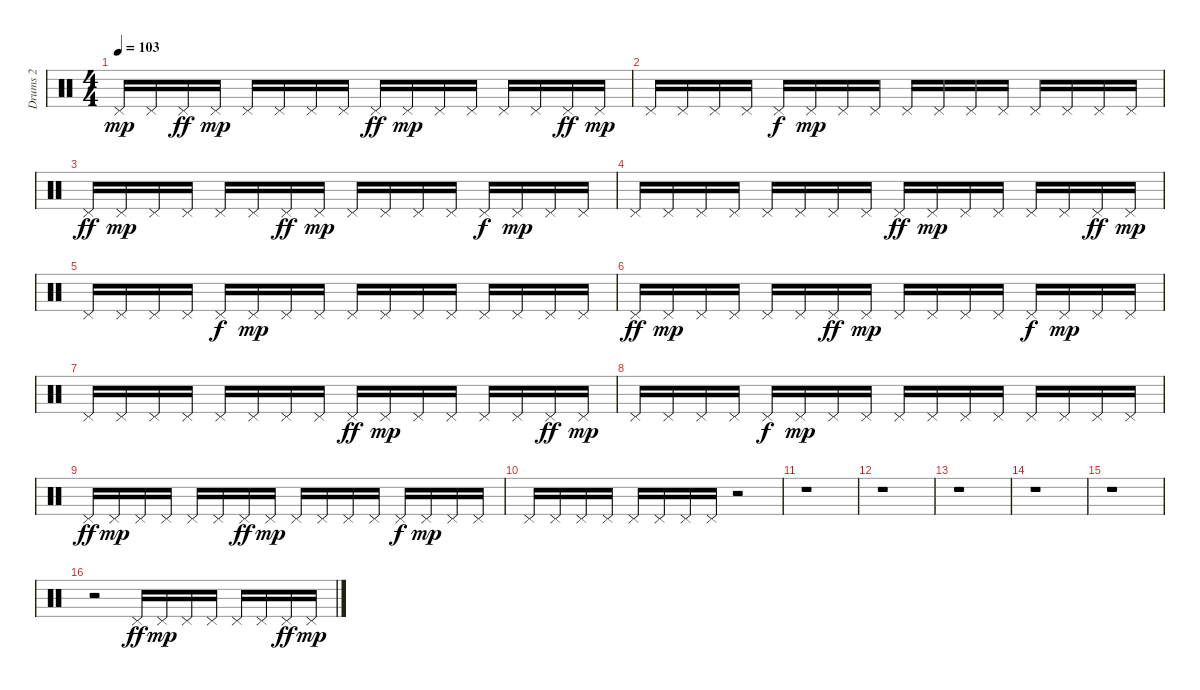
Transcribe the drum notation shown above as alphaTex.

\track ("Drums 2" "Drums 2") {instrument percussion}
\staff {score}
\articulation defaults
\ts (4 4)
\tempo 103
\clef neutral
\ks c "Pedal Hi-Hat (hit)".16{dy mp} "Pedal Hi-Hat (hit)".16 "Pedal Hi-Hat (hit)".16{dy ff} "Pedal Hi-Hat (hit)".16{dy mp} "Pedal Hi-Hat (hit)".16 "Pedal Hi-Hat (hit)".16 "Pedal Hi-Hat (hit)".16 "Pedal Hi-Hat (hit)".16 "Pedal Hi-Hat (hit)".16{dy ff} "Pedal Hi-Hat (hit)".16{dy mp} "Pedal Hi-Hat (hit)".16 "Pedal Hi-Hat (hit)".16 "Pedal Hi-Hat (hit)".16 "Pedal Hi-Hat (hit)".16 "Pedal Hi-Hat (hit)".16{dy ff} "Pedal Hi-Hat (hit)".16{dy mp}
|
"Pedal Hi-Hat (hit)".16 "Pedal Hi-Hat (hit)".16 "Pedal Hi-Hat (hit)".16 "Pedal Hi-Hat (hit)".16 "Pedal Hi-Hat (hit)".16{dy f} "Pedal Hi-Hat (hit)".16{dy mp} "Pedal Hi-Hat (hit)".16 "Pedal Hi-Hat (hit)".16 "Pedal Hi-Hat (hit)".16 "Pedal Hi-Hat (hit)".16 "Pedal Hi-Hat (hit)".16 "Pedal Hi-Hat (hit)".16 "Pedal Hi-Hat (hit)".16 "Pedal Hi-Hat (hit)".16 "Pedal Hi-Hat (hit)".16 "Pedal Hi-Hat (hit)".16 |
"Pedal Hi-Hat (hit)".16{dy ff} "Pedal Hi-Hat (hit)".16{dy mp} "Pedal Hi-Hat (hit)".16 "Pedal Hi-Hat (hit)".16 "Pedal Hi-Hat (hit)".16 "Pedal Hi-Hat (hit)".16 "Pedal Hi-Hat (hit)".16{dy ff} "Pedal Hi-Hat (hit)".16{dy mp} "Pedal Hi-Hat (hit)".16 "Pedal Hi-Hat (hit)".16 "Pedal Hi-Hat (hit)".16 "Pedal Hi-Hat (hit)".16 "Pedal Hi-Hat (hit)".16{dy f} "Pedal Hi-Hat (hit)".16{dy mp} "Pedal Hi-Hat (hit)".16 "Pedal Hi-Hat (hit)".16 |
"Pedal Hi-Hat (hit)".16 "Pedal Hi-Hat (hit)".16 "Pedal Hi-Hat (hit)".16 "Pedal Hi-Hat (hit)".16 "Pedal Hi-Hat (hit)".16 "Pedal Hi-Hat (hit)".16 "Pedal Hi-Hat (hit)".16 "Pedal Hi-Hat (hit)".16 "Pedal Hi-Hat (hit)".16{dy ff} "Pedal Hi-Hat (hit)".16{dy mp} "Pedal Hi-Hat (hit)".16 "Pedal Hi-Hat (hit)".16 "Pedal Hi-Hat (hit)".16 "Pedal Hi-Hat (hit)".16 "Pedal Hi-Hat (hit)".16{dy ff} "Pedal Hi-Hat (hit)".16{dy mp} |
"Pedal Hi-Hat (hit)".16 "Pedal Hi-Hat (hit)".16 "Pedal Hi-Hat (hit)".16 "Pedal Hi-Hat (hit)".16 "Pedal Hi-Hat (hit)".16{dy f} "Pedal Hi-Hat (hit)".16{dy mp} "Pedal Hi-Hat (hit)".16 "Pedal Hi-Hat (hit)".16 "Pedal Hi-Hat (hit)".16 "Pedal Hi-Hat (hit)".16 "Pedal Hi-Hat (hit)".16 "Pedal Hi-Hat (hit)".16 "Pedal Hi-Hat (hit)".16 "Pedal Hi-Hat (hit)".16 "Pedal Hi-Hat (hit)".16 "Pedal Hi-Hat (hit)".16 |
"Pedal Hi-Hat (hit)".16{dy ff} "Pedal Hi-Hat (hit)".16{dy mp} "Pedal Hi-Hat (hit)".16 "Pedal Hi-Hat (hit)".16 "Pedal Hi-Hat (hit)".16 "Pedal Hi-Hat (hit)".16 "Pedal Hi-Hat (hit)".16{dy ff} "Pedal Hi-Hat (hit)".16{dy mp} "Pedal Hi-Hat (hit)".16 "Pedal Hi-Hat (hit)".16 "Pedal Hi-Hat (hit)".16 "Pedal Hi-Hat (hit)".16 "Pedal Hi-Hat (hit)".16{dy f} "Pedal Hi-Hat (hit)".16{dy mp} "Pedal Hi-Hat (hit)".16 "Pedal Hi-Hat (hit)".16 |
"Pedal Hi-Hat (hit)".16 "Pedal Hi-Hat (hit)".16 "Pedal Hi-Hat (hit)".16 "Pedal Hi-Hat (hit)".16 "Pedal Hi-Hat (hit)".16 "Pedal Hi-Hat (hit)".16 "Pedal Hi-Hat (hit)".16 "Pedal Hi-Hat (hit)".16 "Pedal Hi-Hat (hit)".16{dy ff} "Pedal Hi-Hat (hit)".16{dy mp} "Pedal Hi-Hat (hit)".16 "Pedal Hi-Hat (hit)".16 "Pedal Hi-Hat (hit)".16 "Pedal Hi-Hat (hit)".16 "Pedal Hi-Hat (hit)".16{dy ff} "Pedal Hi-Hat (hit)".16{dy mp} |
"Pedal Hi-Hat (hit)".16 "Pedal Hi-Hat (hit)".16 "Pedal Hi-Hat (hit)".16 "Pedal Hi-Hat (hit)".16 "Pedal Hi-Hat (hit)".16{dy f} "Pedal Hi-Hat (hit)".16{dy mp} "Pedal Hi-Hat (hit)".16 "Pedal Hi-Hat (hit)".16 "Pedal Hi-Hat (hit)".16 "Pedal Hi-Hat (hit)".16 "Pedal Hi-Hat (hit)".16 "Pedal Hi-Hat (hit)".16 "Pedal Hi-Hat (hit)".16 "Pedal Hi-Hat (hit)".16 "Pedal Hi-Hat (hit)".16 "Pedal Hi-Hat (hit)".16 |
"Pedal Hi-Hat (hit)".16{dy ff} "Pedal Hi-Hat (hit)".16{dy mp} "Pedal Hi-Hat (hit)".16 "Pedal Hi-Hat (hit)".16 "Pedal Hi-Hat (hit)".16 "Pedal Hi-Hat (hit)".16 "Pedal Hi-Hat (hit)".16{dy ff} "Pedal Hi-Hat (hit)".16{dy mp} "Pedal Hi-Hat (hit)".16 "Pedal Hi-Hat (hit)".16 "Pedal Hi-Hat (hit)".16 "Pedal Hi-Hat (hit)".16 "Pedal Hi-Hat (hit)".16{dy f} "Pedal Hi-Hat (hit)".16{dy mp} "Pedal Hi-Hat (hit)".16 "Pedal Hi-Hat (hit)".16 |
"Pedal Hi-Hat (hit)".16 "Pedal Hi-Hat (hit)".16 "Pedal Hi-Hat (hit)".16 "Pedal Hi-Hat (hit)".16 "Pedal Hi-Hat (hit)".16 "Pedal Hi-Hat (hit)".16 "Pedal Hi-Hat (hit)".16 "Pedal Hi-Hat (hit)".16 r.2 |
r.1 |
r.1 |
r.1 |
r.1 |
r.1 |
r.2 "Pedal Hi-Hat (hit)".16{dy ff} "Pedal Hi-Hat (hit)".16{dy mp} "Pedal Hi-Hat (hit)".16 "Pedal Hi-Hat (hit)".16 "Pedal Hi-Hat (hit)".16 "Pedal Hi-Hat (hit)".16 "Pedal Hi-Hat (hit)".16{dy ff} "Pedal Hi-Hat (hit)".16{dy mp}
